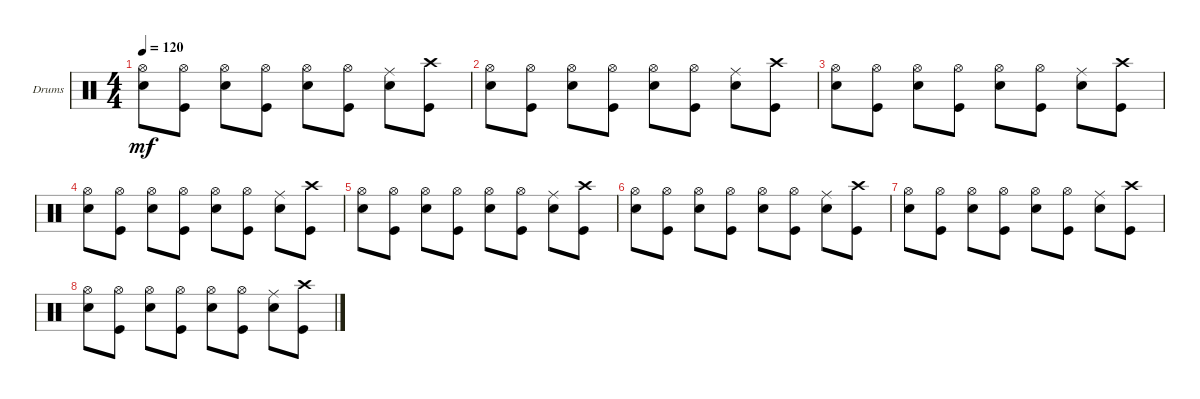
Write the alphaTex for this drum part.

\defaultSystemsLayout 4
\bracketExtendMode groupsimilarinstruments
\firstSystemTrackNameOrientation horizontal
\otherSystemsTrackNameOrientation horizontal
\track ("Drumkit" "Drums") {instrument percussion}
\staff {score}
\articulation defaults
\ts (4 4)
\tempo 120
\clef neutral
\ks c
("Snare (hit) 2" "Hi-Hat (open)").8{dy mf} ("Hi-Hat (open)" "Kick (hit)").8 ("Snare (hit) 2" "Hi-Hat (open)").8 ("Hi-Hat (open)" "Kick (hit)").8 ("Snare (hit) 2" "Hi-Hat (open)").8 ("Hi-Hat (open)" "Kick (hit)").8 ("Snare (hit) 2" "Ride (middle)").8 ("Kick (hit)" "Crash high (hit)").8 |
("Snare (hit) 2" "Hi-Hat (open)").8 ("Hi-Hat (open)" "Kick (hit)").8 ("Snare (hit) 2" "Hi-Hat (open)").8 ("Hi-Hat (open)" "Kick (hit)").8 ("Snare (hit) 2" "Hi-Hat (open)").8 ("Hi-Hat (open)" "Kick (hit)").8 ("Snare (hit) 2" "Ride (middle)").8 ("Kick (hit)" "Crash high (hit)").8 |
("Snare (hit) 2" "Hi-Hat (open)").8 ("Hi-Hat (open)" "Kick (hit)").8 ("Snare (hit) 2" "Hi-Hat (open)").8 ("Hi-Hat (open)" "Kick (hit)").8 ("Snare (hit) 2" "Hi-Hat (open)").8 ("Hi-Hat (open)" "Kick (hit)").8 ("Snare (hit) 2" "Ride (middle)").8 ("Kick (hit)" "Crash high (hit)").8 |
("Snare (hit) 2" "Hi-Hat (open)").8 ("Hi-Hat (open)" "Kick (hit)").8 ("Snare (hit) 2" "Hi-Hat (open)").8 ("Hi-Hat (open)" "Kick (hit)").8 ("Snare (hit) 2" "Hi-Hat (open)").8 ("Hi-Hat (open)" "Kick (hit)").8 ("Snare (hit) 2" "Ride (middle)").8 ("Kick (hit)" "Crash high (hit)").8 |
("Snare (hit) 2" "Hi-Hat (open)").8 ("Hi-Hat (open)" "Kick (hit)").8 ("Snare (hit) 2" "Hi-Hat (open)").8 ("Hi-Hat (open)" "Kick (hit)").8 ("Snare (hit) 2" "Hi-Hat (open)").8 ("Hi-Hat (open)" "Kick (hit)").8 ("Snare (hit) 2" "Ride (middle)").8 ("Kick (hit)" "Crash high (hit)").8 |
("Snare (hit) 2" "Hi-Hat (open)").8 ("Hi-Hat (open)" "Kick (hit)").8 ("Snare (hit) 2" "Hi-Hat (open)").8 ("Hi-Hat (open)" "Kick (hit)").8 ("Snare (hit) 2" "Hi-Hat (open)").8 ("Hi-Hat (open)" "Kick (hit)").8 ("Snare (hit) 2" "Ride (middle)").8 ("Kick (hit)" "Crash high (hit)").8 |
("Snare (hit) 2" "Hi-Hat (open)").8 ("Hi-Hat (open)" "Kick (hit)").8 ("Snare (hit) 2" "Hi-Hat (open)").8 ("Hi-Hat (open)" "Kick (hit)").8 ("Snare (hit) 2" "Hi-Hat (open)").8 ("Hi-Hat (open)" "Kick (hit)").8 ("Snare (hit) 2" "Ride (middle)").8 ("Kick (hit)" "Crash high (hit)").8 |
("Snare (hit) 2" "Hi-Hat (open)").8 ("Hi-Hat (open)" "Kick (hit)").8 ("Snare (hit) 2" "Hi-Hat (open)").8 ("Hi-Hat (open)" "Kick (hit)").8 ("Snare (hit) 2" "Hi-Hat (open)").8 ("Hi-Hat (open)" "Kick (hit)").8 ("Snare (hit) 2" "Ride (middle)").8 ("Kick (hit)" "Crash high (hit)").8
